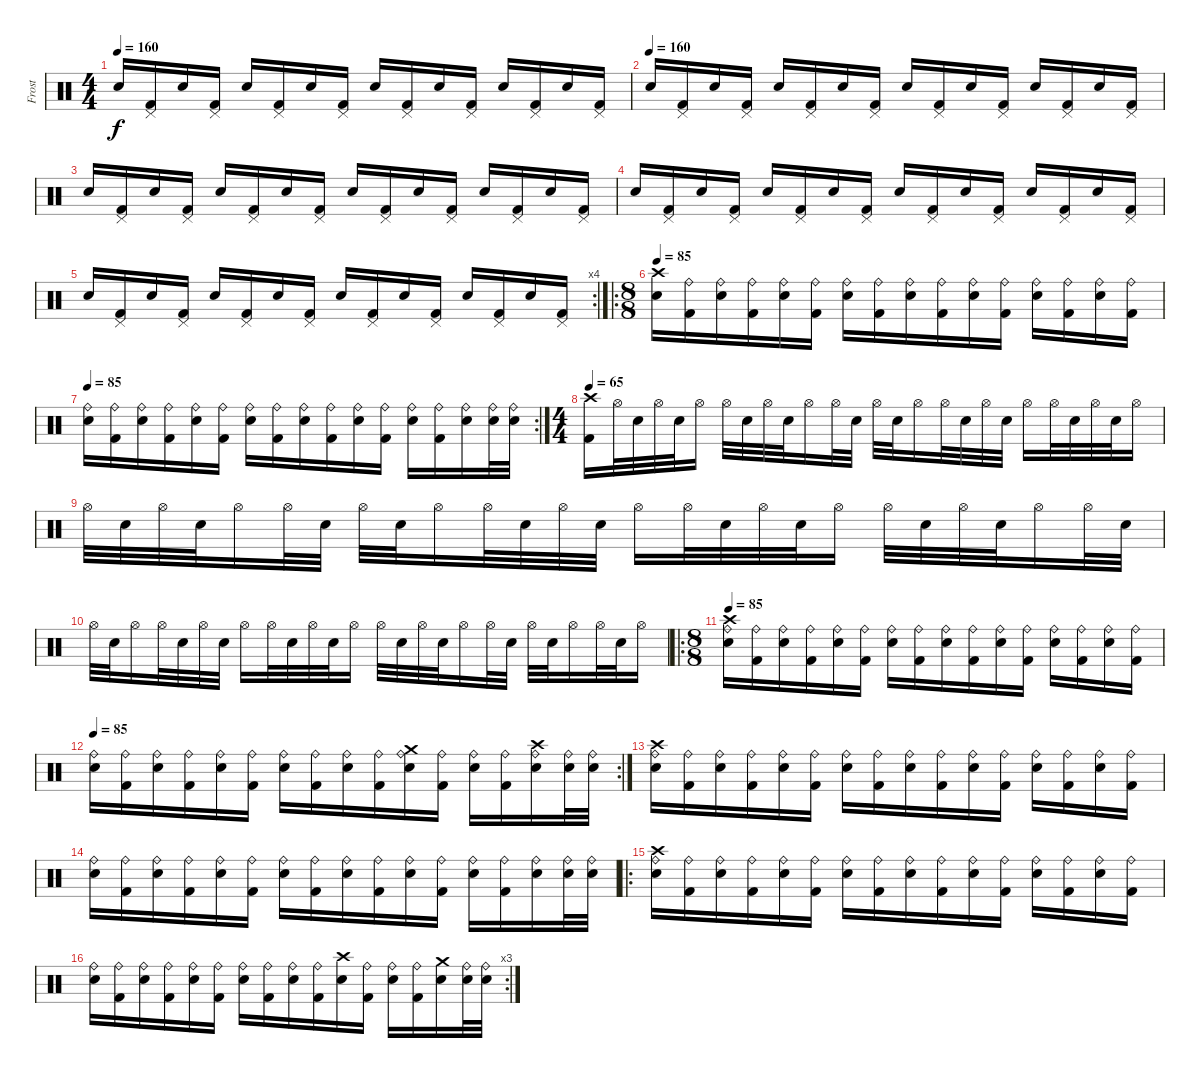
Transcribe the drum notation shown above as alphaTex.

\track ("Frost" "Frost") {instrument percussion}
\staff {score}
\articulation defaults
\ts (4 4)
\tempo 160
\clef neutral
\ks c "Electric Snare (hit)".16{dy f}
("Pedal Hi-Hat (hit)" "Kick (hit) 2").16 "Electric Snare (hit)".16 ("Pedal Hi-Hat (hit)" "Kick (hit) 2").16 "Electric Snare (hit)".16 ("Pedal Hi-Hat (hit)" "Kick (hit) 2").16 "Electric Snare (hit)".16 ("Pedal Hi-Hat (hit)" "Kick (hit) 2").16 "Electric Snare (hit)".16 ("Pedal Hi-Hat (hit)" "Kick (hit) 2").16 "Electric Snare (hit)".16 ("Pedal Hi-Hat (hit)" "Kick (hit) 2").16 "Electric Snare (hit)".16 ("Pedal Hi-Hat (hit)" "Kick (hit) 2").16 "Electric Snare (hit)".16 ("Pedal Hi-Hat (hit)" "Kick (hit) 2").16 |
\tempo (160)
"Electric Snare (hit)".16 ("Pedal Hi-Hat (hit)" "Kick (hit) 2").16 "Electric Snare (hit)".16 ("Pedal Hi-Hat (hit)" "Kick (hit) 2").16 "Electric Snare (hit)".16 ("Pedal Hi-Hat (hit)" "Kick (hit) 2").16 "Electric Snare (hit)".16 ("Pedal Hi-Hat (hit)" "Kick (hit) 2").16 "Electric Snare (hit)".16 ("Pedal Hi-Hat (hit)" "Kick (hit) 2").16 "Electric Snare (hit)".16 ("Pedal Hi-Hat (hit)" "Kick (hit) 2").16 "Electric Snare (hit)".16 ("Pedal Hi-Hat (hit)" "Kick (hit) 2").16 "Electric Snare (hit)".16 ("Pedal Hi-Hat (hit)" "Kick (hit) 2").16 |
"Electric Snare (hit)".16 ("Pedal Hi-Hat (hit)" "Kick (hit) 2").16 "Electric Snare (hit)".16 ("Pedal Hi-Hat (hit)" "Kick (hit) 2").16 "Electric Snare (hit)".16 ("Pedal Hi-Hat (hit)" "Kick (hit) 2").16 "Electric Snare (hit)".16 ("Pedal Hi-Hat (hit)" "Kick (hit) 2").16 "Electric Snare (hit)".16 ("Pedal Hi-Hat (hit)" "Kick (hit) 2").16 "Electric Snare (hit)".16 ("Pedal Hi-Hat (hit)" "Kick (hit) 2").16 "Electric Snare (hit)".16 ("Pedal Hi-Hat (hit)" "Kick (hit) 2").16 "Electric Snare (hit)".16 ("Pedal Hi-Hat (hit)" "Kick (hit) 2").16 |
"Electric Snare (hit)".16 ("Pedal Hi-Hat (hit)" "Kick (hit) 2").16 "Electric Snare (hit)".16 ("Pedal Hi-Hat (hit)" "Kick (hit) 2").16 "Electric Snare (hit)".16 ("Pedal Hi-Hat (hit)" "Kick (hit) 2").16 "Electric Snare (hit)".16 ("Pedal Hi-Hat (hit)" "Kick (hit) 2").16 "Electric Snare (hit)".16 ("Pedal Hi-Hat (hit)" "Kick (hit) 2").16 "Electric Snare (hit)".16 ("Pedal Hi-Hat (hit)" "Kick (hit) 2").16 "Electric Snare (hit)".16 ("Pedal Hi-Hat (hit)" "Kick (hit) 2").16 "Electric Snare (hit)".16 ("Pedal Hi-Hat (hit)" "Kick (hit) 2").16 |
\rc 4 "Electric Snare (hit)".16
("Pedal Hi-Hat (hit)" "Kick (hit) 2").16 "Electric Snare (hit)".16 ("Pedal Hi-Hat (hit)" "Kick (hit) 2").16 "Electric Snare (hit)".16 ("Pedal Hi-Hat (hit)" "Kick (hit) 2").16 "Electric Snare (hit)".16 ("Pedal Hi-Hat (hit)" "Kick (hit) 2").16 "Electric Snare (hit)".16 ("Pedal Hi-Hat (hit)" "Kick (hit) 2").16 "Electric Snare (hit)".16 ("Pedal Hi-Hat (hit)" "Kick (hit) 2").16 "Electric Snare (hit)".16 ("Pedal Hi-Hat (hit)" "Kick (hit) 2").16 "Electric Snare (hit)".16 ("Pedal Hi-Hat (hit)" "Kick (hit) 2").16 |
\ro
\ts (8 8)
\tempo 85
("Crash high (hit)" "Electric Snare (hit)").16 ("Ride (bell)" "Kick (hit) 2").16 ("Ride (bell)" "Electric Snare (hit)").16 ("Ride (bell)" "Kick (hit) 2").16 ("Ride (bell)" "Electric Snare (hit)").16 ("Ride (bell)" "Kick (hit) 2").16 ("Ride (bell)" "Electric Snare (hit)").16 ("Ride (bell)" "Kick (hit) 2").16 ("Ride (bell)" "Electric Snare (hit)").16 ("Ride (bell)" "Kick (hit) 2").16 ("Ride (bell)" "Electric Snare (hit)").16 ("Ride (bell)" "Kick (hit) 2").16 ("Ride (bell)" "Electric Snare (hit)").16 ("Ride (bell)" "Kick (hit) 2").16 ("Ride (bell)" "Electric Snare (hit)").16 ("Ride (bell)" "Kick (hit) 2").16 |
\rc 2
\tempo 85
("Ride (bell)" "Electric Snare (hit)").16 ("Ride (bell)" "Kick (hit) 2").16 ("Ride (bell)" "Electric Snare (hit)").16 ("Ride (bell)" "Kick (hit) 2").16 ("Ride (bell)" "Electric Snare (hit)").16 ("Ride (bell)" "Kick (hit) 2").16 ("Ride (bell)" "Electric Snare (hit)").16 ("Ride (bell)" "Kick (hit) 2").16 ("Ride (bell)" "Electric Snare (hit)").16 ("Ride (bell)" "Kick (hit) 2").16 ("Ride (bell)" "Electric Snare (hit)").16 ("Ride (bell)" "Kick (hit) 2").16 ("Ride (bell)" "Electric Snare (hit)").16 ("Ride (bell)" "Kick (hit) 2").16 ("Ride (bell)" "Electric Snare (hit)").16 ("Ride (bell)" "Electric Snare (hit)").32 ("Ride (bell)" "Electric Snare (hit)").32 |
\ts (4 4)
\tempo 65
("Crash high (hit)" "Kick (hit) 2").16 "Hi-Hat (open)".32 "Electric Snare (hit)".32 "Hi-Hat (open)".32 "Electric Snare (hit)".32 "Hi-Hat (open)".16 "Hi-Hat (open)".32 "Electric Snare (hit)".32 "Hi-Hat (open)".32 "Electric Snare (hit)".32 "Hi-Hat (open)".16 "Hi-Hat (open)".32 "Electric Snare (hit)".32 "Hi-Hat (open)".32 "Electric Snare (hit)".32 "Hi-Hat (open)".16 "Hi-Hat (open)".32 "Electric Snare (hit)".32 "Hi-Hat (open)".32 "Electric Snare (hit)".32 "Hi-Hat (open)".16 "Hi-Hat (open)".32 "Electric Snare (hit)".32 "Hi-Hat (open)".32 "Electric Snare (hit)".32 "Hi-Hat (open)".16 |
"Hi-Hat (open)".32 "Electric Snare (hit)".32 "Hi-Hat (open)".32 "Electric Snare (hit)".32 "Hi-Hat (open)".16 "Hi-Hat (open)".32 "Electric Snare (hit)".32 "Hi-Hat (open)".32 "Electric Snare (hit)".32 "Hi-Hat (open)".16 "Hi-Hat (open)".32 "Electric Snare (hit)".32 "Hi-Hat (open)".32 "Electric Snare (hit)".32 "Hi-Hat (open)".16 "Hi-Hat (open)".32 "Electric Snare (hit)".32 "Hi-Hat (open)".32 "Electric Snare (hit)".32 "Hi-Hat (open)".16 "Hi-Hat (open)".32 "Electric Snare (hit)".32 "Hi-Hat (open)".32 "Electric Snare (hit)".32 "Hi-Hat (open)".16 "Hi-Hat (open)".32 "Electric Snare (hit)".32 |
"Hi-Hat (open)".32 "Electric Snare (hit)".32 "Hi-Hat (open)".16 "Hi-Hat (open)".32 "Electric Snare (hit)".32 "Hi-Hat (open)".32 "Electric Snare (hit)".32 "Hi-Hat (open)".16 "Hi-Hat (open)".32 "Electric Snare (hit)".32 "Hi-Hat (open)".32 "Electric Snare (hit)".32 "Hi-Hat (open)".16 "Hi-Hat (open)".32 "Electric Snare (hit)".32 "Hi-Hat (open)".32 "Electric Snare (hit)".32 "Hi-Hat (open)".16 "Hi-Hat (open)".32 "Electric Snare (hit)".32 "Hi-Hat (open)".32 "Electric Snare (hit)".32 "Hi-Hat (open)".16 "Hi-Hat (open)".32 "Electric Snare (hit)".32 "Hi-Hat (open)".16 |
\ro
\ts (8 8)
\tempo 85
("Crash high (hit)" "Ride (bell)" "Electric Snare (hit)").16 ("Ride (bell)" "Kick (hit) 2").16 ("Ride (bell)" "Electric Snare (hit)").16 ("Ride (bell)" "Kick (hit) 2").16 ("Ride (bell)" "Electric Snare (hit)").16 ("Ride (bell)" "Kick (hit) 2").16 ("Ride (bell)" "Electric Snare (hit)").16 ("Ride (bell)" "Kick (hit) 2").16 ("Ride (bell)" "Electric Snare (hit)").16 ("Ride (bell)" "Kick (hit) 2").16 ("Ride (bell)" "Electric Snare (hit)").16 ("Ride (bell)" "Kick (hit) 2").16 ("Ride (bell)" "Electric Snare (hit)").16 ("Ride (bell)" "Kick (hit) 2").16 ("Ride (bell)" "Electric Snare (hit)").16 ("Ride (bell)" "Kick (hit) 2").16 |
\rc 2
\tempo 85
("Ride (bell)" "Electric Snare (hit)").16 ("Ride (bell)" "Kick (hit) 2").16 ("Ride (bell)" "Electric Snare (hit)").16 ("Ride (bell)" "Kick (hit) 2").16 ("Ride (bell)" "Electric Snare (hit)").16 ("Ride (bell)" "Kick (hit) 2").16 ("Ride (bell)" "Electric Snare (hit)").16 ("Ride (bell)" "Kick (hit) 2").16 ("Ride (bell)" "Electric Snare (hit)").16 ("Ride (bell)" "Kick (hit) 2").16 ("Crash medium (hit)" "Ride (bell)" "Electric Snare (hit)").16 ("Ride (bell)" "Kick (hit) 2").16 ("Ride (bell)" "Electric Snare (hit)").16 ("Ride (bell)" "Kick (hit) 2").16 ("Crash high (hit)" "Ride (bell)" "Electric Snare (hit)").16 ("Ride (bell)" "Electric Snare (hit)").32 ("Ride (bell)" "Electric Snare (hit)").32 |
("Crash high (hit)" "Ride (bell)" "Electric Snare (hit)").16 ("Ride (bell)" "Kick (hit) 2").16 ("Ride (bell)" "Electric Snare (hit)").16 ("Ride (bell)" "Kick (hit) 2").16 ("Ride (bell)" "Electric Snare (hit)").16 ("Ride (bell)" "Kick (hit) 2").16 ("Ride (bell)" "Electric Snare (hit)").16 ("Ride (bell)" "Kick (hit) 2").16 ("Ride (bell)" "Electric Snare (hit)").16 ("Ride (bell)" "Kick (hit) 2").16 ("Ride (bell)" "Electric Snare (hit)").16 ("Ride (bell)" "Kick (hit) 2").16 ("Ride (bell)" "Electric Snare (hit)").16 ("Ride (bell)" "Kick (hit) 2").16 ("Ride (bell)" "Electric Snare (hit)").16 ("Ride (bell)" "Kick (hit) 2").16 |
("Ride (bell)" "Electric Snare (hit)").16 ("Ride (bell)" "Kick (hit) 2").16 ("Ride (bell)" "Electric Snare (hit)").16 ("Ride (bell)" "Kick (hit) 2").16 ("Ride (bell)" "Electric Snare (hit)").16 ("Ride (bell)" "Kick (hit) 2").16 ("Ride (bell)" "Electric Snare (hit)").16 ("Ride (bell)" "Kick (hit) 2").16 ("Ride (bell)" "Electric Snare (hit)").16 ("Ride (bell)" "Kick (hit) 2").16 ("Ride (bell)" "Electric Snare (hit)").16 ("Ride (bell)" "Kick (hit) 2").16 ("Ride (bell)" "Electric Snare (hit)").16 ("Ride (bell)" "Kick (hit) 2").16 ("Ride (bell)" "Electric Snare (hit)").16 ("Ride (bell)" "Electric Snare (hit)").32 ("Ride (bell)" "Electric Snare (hit)").32 |
\ro
("Crash high (hit)" "Ride (bell)" "Electric Snare (hit)").16 ("Ride (bell)" "Kick (hit) 2").16 ("Ride (bell)" "Electric Snare (hit)").16 ("Ride (bell)" "Kick (hit) 2").16 ("Ride (bell)" "Electric Snare (hit)").16 ("Ride (bell)" "Kick (hit) 2").16 ("Ride (bell)" "Electric Snare (hit)").16 ("Ride (bell)" "Kick (hit) 2").16 ("Ride (bell)" "Electric Snare (hit)").16 ("Ride (bell)" "Kick (hit) 2").16 ("Ride (bell)" "Electric Snare (hit)").16 ("Ride (bell)" "Kick (hit) 2").16 ("Ride (bell)" "Electric Snare (hit)").16 ("Ride (bell)" "Kick (hit) 2").16 ("Ride (bell)" "Electric Snare (hit)").16 ("Ride (bell)" "Kick (hit) 2").16 |
\rc 3
("Ride (bell)" "Electric Snare (hit)").16 ("Ride (bell)" "Kick (hit) 2").16 ("Ride (bell)" "Electric Snare (hit)").16 ("Ride (bell)" "Kick (hit) 2").16 ("Ride (bell)" "Electric Snare (hit)").16 ("Ride (bell)" "Kick (hit) 2").16 ("Ride (bell)" "Electric Snare (hit)").16 ("Ride (bell)" "Kick (hit) 2").16 ("Ride (bell)" "Electric Snare (hit)").16 ("Ride (bell)" "Kick (hit) 2").16 ("Crash high (hit)" "Electric Snare (hit)").16 ("Ride (bell)" "Kick (hit) 2").16 ("Ride (bell)" "Electric Snare (hit)").16 ("Ride (bell)" "Kick (hit) 2").16 ("Crash medium (hit)" "Electric Snare (hit)").16 ("Ride (bell)" "Electric Snare (hit)").32 ("Ride (bell)" "Electric Snare (hit)").32
